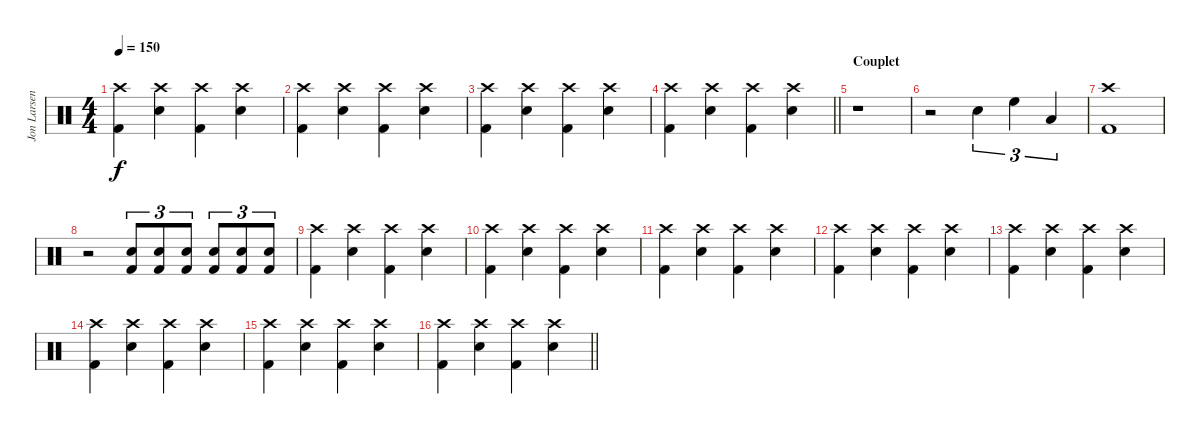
\track ("Jon Larsen" "Jon Larsen") {instrument percussion}
\staff {score}
\articulation defaults
\ts (4 4)
\tempo 150
\clef neutral
\ks c
("Kick (hit) 2" "Crash high (hit)").4{dy f} ("Snare (hit) 2" "Crash high (hit)").4 ("Kick (hit) 2" "Crash high (hit)").4 ("Snare (hit) 2" "Crash high (hit)").4 |
("Kick (hit) 2" "Crash high (hit)").4 ("Snare (hit) 2" "Crash high (hit)").4 ("Kick (hit) 2" "Crash high (hit)").4 ("Snare (hit) 2" "Crash high (hit)").4 |
("Kick (hit) 2" "Crash high (hit)").4 ("Snare (hit) 2" "Crash high (hit)").4 ("Kick (hit) 2" "Crash high (hit)").4 ("Snare (hit) 2" "Crash high (hit)").4 |
\barLineRight lightlight
("Kick (hit) 2" "Crash high (hit)").4 ("Snare (hit) 2" "Crash high (hit)").4 ("Kick (hit) 2" "Crash high (hit)").4 ("Snare (hit) 2" "Crash high (hit)").4 |
\section ("" "Couplet")
r.1 |
r.2 "Snare (hit) 2".4{tu (3 2)} "High Floor Tom (hit)".4{tu (3 2)} "Low Tom (hit)".4{tu (3 2)} |
("Crash high (hit)" "Kick (hit) 2").1 |
r.2 ("Kick (hit) 2" "Snare (hit) 2").8{tu (3 2)} ("Kick (hit) 2" "Snare (hit) 2").8{tu (3 2)} ("Kick (hit) 2" "Snare (hit) 2").8{tu (3 2)} ("Kick (hit) 2" "Snare (hit) 2").8{tu (3 2)} ("Kick (hit) 2" "Snare (hit) 2").8{tu (3 2)} ("Kick (hit) 2" "Snare (hit) 2").8{tu (3 2)} |
("Kick (hit) 2" "Crash high (hit)").4 ("Snare (hit) 2" "Crash high (hit)").4 ("Kick (hit) 2" "Crash high (hit)").4 ("Snare (hit) 2" "Crash high (hit)").4 |
("Kick (hit) 2" "Crash high (hit)").4 ("Snare (hit) 2" "Crash high (hit)").4 ("Kick (hit) 2" "Crash high (hit)").4 ("Snare (hit) 2" "Crash high (hit)").4 |
("Kick (hit) 2" "Crash high (hit)").4 ("Snare (hit) 2" "Crash high (hit)").4 ("Kick (hit) 2" "Crash high (hit)").4 ("Snare (hit) 2" "Crash high (hit)").4 |
("Kick (hit) 2" "Crash high (hit)").4 ("Snare (hit) 2" "Crash high (hit)").4 ("Kick (hit) 2" "Crash high (hit)").4 ("Snare (hit) 2" "Crash high (hit)").4 |
("Kick (hit) 2" "Crash high (hit)").4 ("Snare (hit) 2" "Crash high (hit)").4 ("Kick (hit) 2" "Crash high (hit)").4 ("Snare (hit) 2" "Crash high (hit)").4 |
("Kick (hit) 2" "Crash high (hit)").4 ("Snare (hit) 2" "Crash high (hit)").4 ("Kick (hit) 2" "Crash high (hit)").4 ("Snare (hit) 2" "Crash high (hit)").4 |
("Kick (hit) 2" "Crash high (hit)").4 ("Snare (hit) 2" "Crash high (hit)").4 ("Kick (hit) 2" "Crash high (hit)").4 ("Snare (hit) 2" "Crash high (hit)").4 |
\barLineRight lightlight
("Kick (hit) 2" "Crash high (hit)").4 ("Snare (hit) 2" "Crash high (hit)").4 ("Kick (hit) 2" "Crash high (hit)").4 ("Snare (hit) 2" "Crash high (hit)").4
